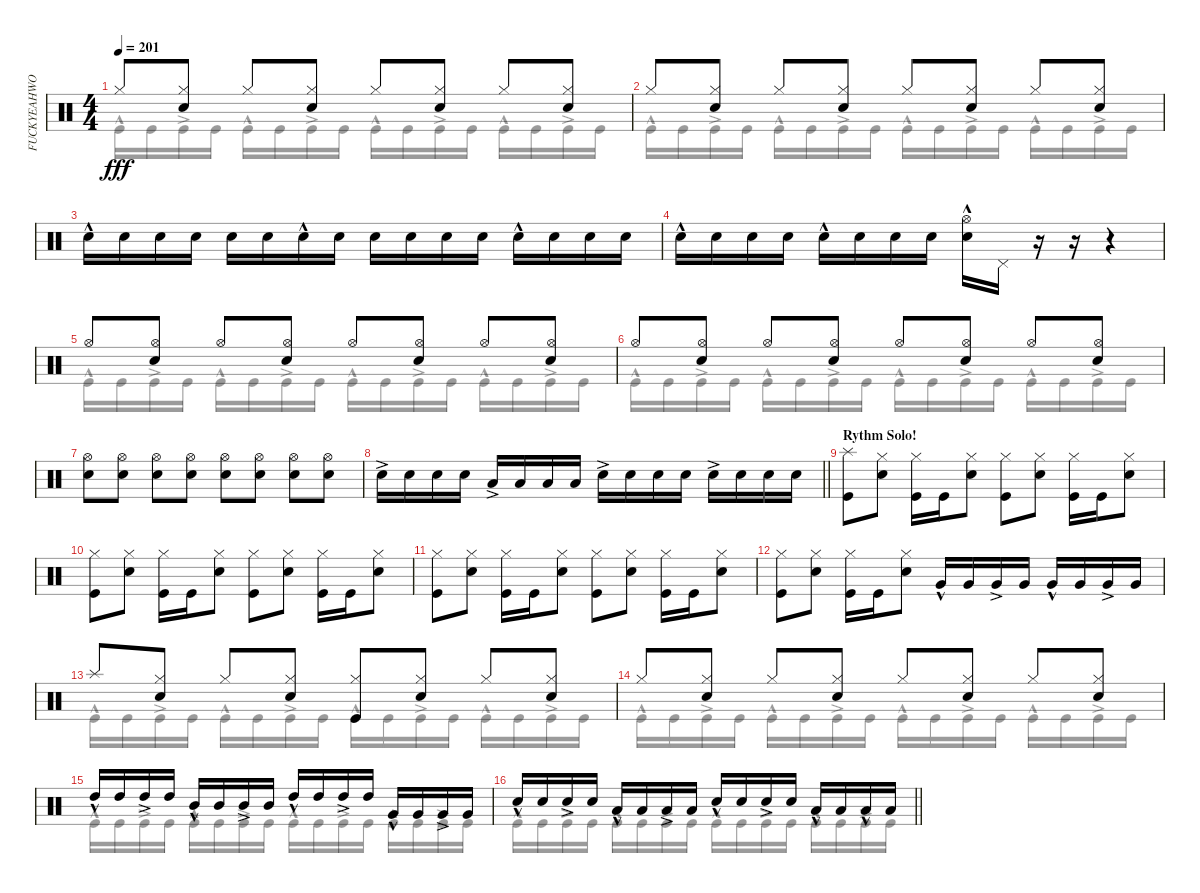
\track ("FUCKYEAHWOOTDAVEMACKINTOSH(Percussion)" "FUCKYEAHWO") {instrument percussion}
\staff {score}
\articulation defaults
\voice
\ts (4 4)
\tempo 201
\clef neutral
\ks c "Hi-Hat (closed)".8{dy fff}
("Hi-Hat (closed)" "Snare (hit) 2").8 "Hi-Hat (closed)".8 ("Snare (hit) 2" "Hi-Hat (closed)").8 "Hi-Hat (closed)".8 ("Hi-Hat (closed)" "Snare (hit) 2").8 "Hi-Hat (closed)".8 ("Hi-Hat (closed)" "Snare (hit) 2").8 |
"Hi-Hat (closed)".8 ("Hi-Hat (closed)" "Snare (hit) 2").8 "Hi-Hat (closed)".8 ("Snare (hit) 2" "Hi-Hat (closed)").8 "Hi-Hat (closed)".8 ("Hi-Hat (closed)" "Snare (hit) 2").8 "Hi-Hat (closed)".8 ("Hi-Hat (closed)" "Snare (hit) 2").8 |
"Snare (hit) 2"{hac}.16 "Snare (hit) 2".16 "Snare (hit) 2".16 "Snare (hit) 2".16 "Snare (hit) 2".16 "Snare (hit) 2".16 "Snare (hit) 2"{hac}.16 "Snare (hit) 2".16 "Snare (hit) 2".16 "Snare (hit) 2".16 "Snare (hit) 2".16 "Snare (hit) 2".16 "Snare (hit) 2"{hac}.16 "Snare (hit) 2".16 "Snare (hit) 2".16 "Snare (hit) 2".16 |
"Snare (hit) 2"{hac}.16 "Snare (hit) 2".16 "Snare (hit) 2".16 "Snare (hit) 2".16 "Snare (hit) 2"{hac}.16 "Snare (hit) 2".16 "Snare (hit) 2".16 "Snare (hit) 2".16 ("Snare (hit) 2"{hac} "Hi-Hat (open)").16 "Pedal Hi-Hat (hit)".16 r.16 r.16 r.4 |
"Hi-Hat (open)".8 ("Hi-Hat (open)" "Snare (hit) 2").8 "Hi-Hat (open)".8 ("Snare (hit) 2" "Hi-Hat (open)").8 "Hi-Hat (open)".8 ("Snare (hit) 2" "Hi-Hat (open)").8 "Hi-Hat (open)".8 ("Hi-Hat (open)" "Snare (hit) 2").8 |
"Hi-Hat (open)".8 ("Hi-Hat (open)" "Snare (hit) 2").8 "Hi-Hat (open)".8 ("Snare (hit) 2" "Hi-Hat (open)").8 "Hi-Hat (open)".8 ("Snare (hit) 2" "Hi-Hat (open)").8 "Hi-Hat (open)".8 ("Hi-Hat (open)" "Snare (hit) 2").8 |
("Snare (hit) 2" "Hi-Hat (open)").8 ("Snare (hit) 2" "Hi-Hat (open)").8 ("Hi-Hat (open)" "Snare (hit) 2").8 ("Hi-Hat (open)" "Snare (hit) 2").8 ("Hi-Hat (open)" "Snare (hit) 2").8 ("Hi-Hat (open)" "Snare (hit) 2").8 ("Hi-Hat (open)" "Snare (hit) 2").8 ("Hi-Hat (open)" "Snare (hit) 2").8 |
\barLineRight lightlight "Snare (hit) 2"{ac}.16 "Snare (hit) 2".16 "Snare (hit) 2".16 "Snare (hit) 2".16 "Low Tom (hit)"{ac}.16 "Low Tom (hit)".16 "Low Tom (hit)".16 "Low Tom (hit)".16 "Snare (hit) 2"{ac}.16 "Snare (hit) 2".16 "Snare (hit) 2".16 "Snare (hit) 2".16 "Snare (hit) 2"{ac}.16 "Snare (hit) 2".16 "Snare (hit) 2".16 "Snare (hit) 2".16
|
\section ("" "Rythm Solo!")
("Splash (hit)" "Kick (hit)").8 ("Hi-Hat (closed)" "Snare (hit) 2").8 ("Hi-Hat (closed)" "Kick (hit)").16 "Kick (hit)".16 ("Hi-Hat (closed)" "Snare (hit) 2").8 ("Hi-Hat (closed)" "Kick (hit)").8 ("Snare (hit) 2" "Hi-Hat (closed)").8 ("Kick (hit)" "Hi-Hat (closed)").16 "Kick (hit)".16 ("Snare (hit) 2" "Hi-Hat (closed)").8 |
("Kick (hit)" "Hi-Hat (closed)").8 ("Snare (hit) 2" "Hi-Hat (closed)").8 ("Kick (hit)" "Hi-Hat (closed)").16 "Kick (hit)".16 ("Snare (hit) 2" "Hi-Hat (closed)").8 ("Kick (hit)" "Hi-Hat (closed)").8 ("Snare (hit) 2" "Hi-Hat (closed)").8 ("Kick (hit)" "Hi-Hat (closed)").16 "Kick (hit)".16 ("Snare (hit) 2" "Hi-Hat (closed)").8 |
("Kick (hit)" "Hi-Hat (closed)").8 ("Snare (hit) 2" "Hi-Hat (closed)").8 ("Kick (hit)" "Hi-Hat (closed)").16 "Kick (hit)".16 ("Snare (hit) 2" "Hi-Hat (closed)").8 ("Kick (hit)" "Hi-Hat (closed)").8 ("Snare (hit) 2" "Hi-Hat (closed)").8 ("Kick (hit)" "Hi-Hat (closed)").16 "Kick (hit)".16 ("Snare (hit) 2" "Hi-Hat (closed)").8 |
("Kick (hit)" "Hi-Hat (closed)").8 ("Snare (hit) 2" "Hi-Hat (closed)").8 ("Kick (hit)" "Hi-Hat (closed)").16 "Kick (hit)".16 ("Snare (hit) 2" "Hi-Hat (closed)").8 "Very Low Tom (hit)"{hac}.16 "Very Low Tom (hit)".16 "Very Low Tom (hit)"{ac}.16 "Very Low Tom (hit)".16 "Very Low Tom (hit)"{hac}.16 "Very Low Tom (hit)".16 "Very Low Tom (hit)"{ac}.16 "Very Low Tom (hit)".16 |
"Splash (hit)".8 ("Hi-Hat (closed)" "Snare (hit) 2").8 "Hi-Hat (closed)".8 ("Hi-Hat (closed)" "Snare (hit) 2").8 ("Hi-Hat (closed)" "Kick (hit)").8 ("Snare (hit) 2" "Hi-Hat (closed)").8 "Hi-Hat (closed)".8 ("Snare (hit) 2" "Hi-Hat (closed)").8 |
"Hi-Hat (closed)".8 ("Hi-Hat (closed)" "Snare (hit) 2").8 "Hi-Hat (closed)".8 ("Hi-Hat (closed)" "Snare (hit) 2").8 "Hi-Hat (closed)".8 ("Hi-Hat (closed)" "Snare (hit) 2").8 "Hi-Hat (closed)".8 ("Hi-Hat (closed)" "Snare (hit) 2").8 |
"High Tom (hit)"{hac}.16 "High Tom (hit)".16 "High Tom (hit)"{ac}.16 "High Tom (hit)".16 "Mid Tom (hit)"{hac}.16 "Mid Tom (hit)".16 "Mid Tom (hit)"{ac}.16 "Mid Tom (hit)".16 "High Tom (hit)"{hac}.16 "High Tom (hit)".16 "High Tom (hit)"{ac}.16 "High Tom (hit)".16 "Very Low Tom (hit)"{hac}.16 "Very Low Tom (hit)".16 "Very Low Tom (hit)"{ac}.16 "Very Low Tom (hit)".16 |
\barLineRight lightlight "Snare (hit) 2"{hac}.16 "Snare (hit) 2".16 "Snare (hit) 2"{ac}.16 "Snare (hit) 2".16 "Low Floor Tom (hit)"{hac}.16 "Low Floor Tom (hit)".16 "Low Floor Tom (hit)"{ac}.16 "Low Floor Tom (hit)".16 "Snare (hit) 2"{hac}.16 "Snare (hit) 2".16 "Snare (hit) 2"{ac}.16 "Snare (hit) 2".16 "Low Floor Tom (hit)"{hac}.16 "Low Floor Tom (hit)".16 "Low Floor Tom (hit)"{hac}.16 "Low Floor Tom (hit)".16
\voice
\clef neutral
\ottava regular
\simile none
\ks c "Kick (hit)"{hac}.16{dy fff} "Kick (hit)".16 "Kick (hit)"{ac}.16 "Kick (hit)".16 "Kick (hit)"{hac}.16 "Kick (hit)".16 "Kick (hit)"{ac}.16 "Kick (hit)".16 "Kick (hit)"{hac}.16 "Kick (hit)".16 "Kick (hit)"{ac}.16 "Kick (hit)".16 "Kick (hit)"{hac}.16 "Kick (hit)".16 "Kick (hit)"{ac}.16 "Kick (hit)".16
|
"Kick (hit)"{hac}.16 "Kick (hit)".16 "Kick (hit)"{ac}.16 "Kick (hit)".16 "Kick (hit)"{hac}.16 "Kick (hit)".16 "Kick (hit)"{ac}.16 "Kick (hit)".16 "Kick (hit)"{hac}.16 "Kick (hit)".16 "Kick (hit)"{ac}.16 "Kick (hit)".16 "Kick (hit)"{hac}.16 "Kick (hit)".16 "Kick (hit)"{ac}.16 "Kick (hit)".16 |
|
|
"Kick (hit)"{hac}.16 "Kick (hit)".16 "Kick (hit)"{ac}.16 "Kick (hit)".16 "Kick (hit)"{hac}.16 "Kick (hit)".16 "Kick (hit)"{ac}.16 "Kick (hit)".16 "Kick (hit)"{hac}.16 "Kick (hit)".16 "Kick (hit)"{ac}.16 "Kick (hit)".16 "Kick (hit)"{hac}.16 "Kick (hit)".16 "Kick (hit)"{ac}.16 "Kick (hit)".16 |
"Kick (hit)"{hac}.16 "Kick (hit)".16 "Kick (hit)"{ac}.16 "Kick (hit)".16 "Kick (hit)"{hac}.16 "Kick (hit)".16 "Kick (hit)"{ac}.16 "Kick (hit)".16 "Kick (hit)"{hac}.16 "Kick (hit)".16 "Kick (hit)"{ac}.16 "Kick (hit)".16 "Kick (hit)"{hac}.16 "Kick (hit)".16 "Kick (hit)"{ac}.16 "Kick (hit)".16 |
|
\barLineRight lightlight
|
|
|
|
|
"Kick (hit)"{hac}.16 "Kick (hit)".16 "Kick (hit)"{ac}.16 "Kick (hit)".16 "Kick (hit)"{hac}.16 "Kick (hit)".16 "Kick (hit)"{ac}.16 "Kick (hit)".16 "Kick (hit)"{hac}.16 "Kick (hit)".16 "Kick (hit)"{ac}.16 "Kick (hit)".16 "Kick (hit)"{hac}.16 "Kick (hit)".16 "Kick (hit)"{ac}.16 "Kick (hit)".16 |
"Kick (hit)"{hac}.16 "Kick (hit)".16 "Kick (hit)"{ac}.16 "Kick (hit)".16 "Kick (hit)"{hac}.16 "Kick (hit)".16 "Kick (hit)"{ac}.16 "Kick (hit)".16 "Kick (hit)"{hac}.16 "Kick (hit)".16 "Kick (hit)"{ac}.16 "Kick (hit)".16 "Kick (hit)"{hac}.16 "Kick (hit)".16 "Kick (hit)"{ac}.16 "Kick (hit)".16 |
"Kick (hit)"{hac}.16 "Kick (hit)".16 "Kick (hit)"{ac}.16 "Kick (hit)".16 "Kick (hit)"{hac}.16 "Kick (hit)".16 "Kick (hit)"{ac}.16 "Kick (hit)".16 "Kick (hit)"{hac}.16 "Kick (hit)".16 "Kick (hit)"{ac}.16 "Kick (hit)".16 "Kick (hit)"{hac}.16 "Kick (hit)".16 "Kick (hit)"{ac}.16 "Kick (hit)".16 |
\barLineRight lightlight "Kick (hit)"{hac}.16 "Kick (hit)".16 "Kick (hit)"{ac}.16 "Kick (hit)".16 "Kick (hit)"{hac}.16 "Kick (hit)".16 "Kick (hit)"{ac}.16 "Kick (hit)".16 "Kick (hit)"{hac}.16 "Kick (hit)".16 "Kick (hit)"{ac}.16 "Kick (hit)".16 "Kick (hit)"{hac}.16 "Kick (hit)".16 "Kick (hit)"{ac}.16 "Kick (hit)".16
